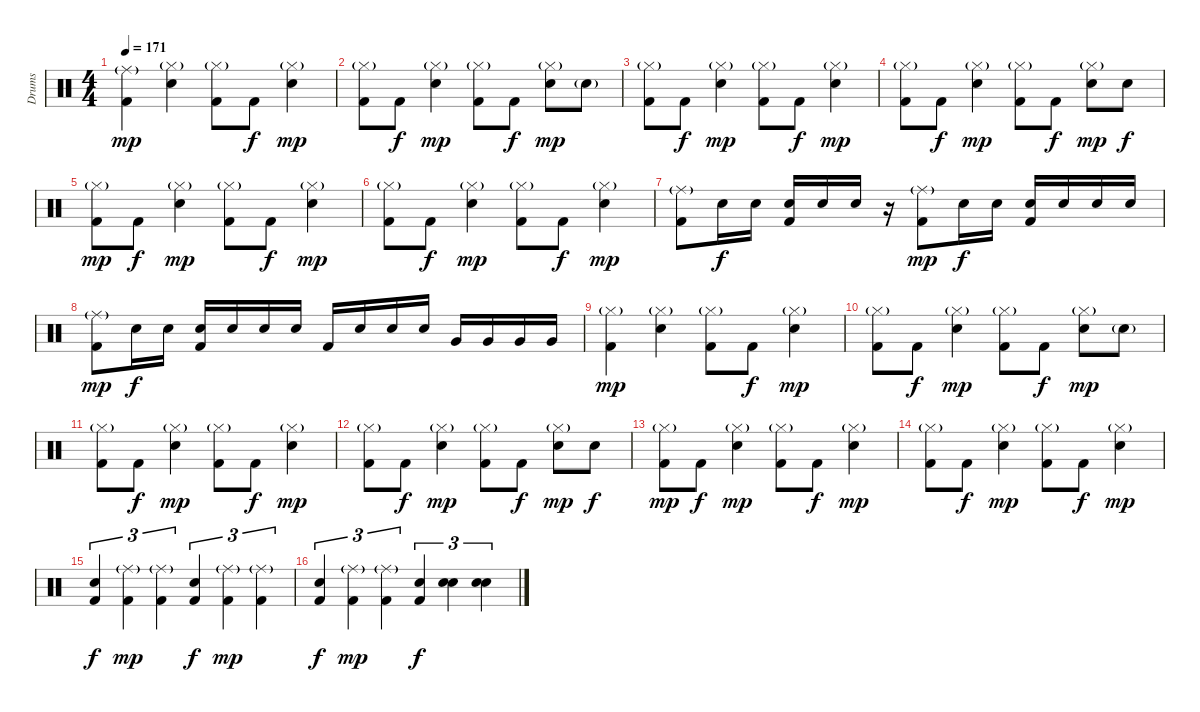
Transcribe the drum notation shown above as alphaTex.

\track ("Drums" "Drums") {instrument percussion}
\staff {score}
\articulation defaults
\ts (4 4)
\tempo 171
\clef neutral
\ks c
("Ride (middle)"{g} "Kick (hit) 2").4{dy mp} ("Hi-Hat (closed)"{g} "Electric Snare (hit)").4 ("Hi-Hat (closed)"{g} "Kick (hit) 2").8 "Kick (hit) 2".8{dy f} ("Hi-Hat (closed)"{g} "Electric Snare (hit)").4{dy mp} |
("Hi-Hat (closed)"{g} "Kick (hit) 2").8 "Kick (hit) 2".8{dy f} ("Hi-Hat (closed)"{g} "Electric Snare (hit)").4{dy mp} ("Hi-Hat (closed)"{g} "Kick (hit) 2").8 "Kick (hit) 2".8{dy f} ("Hi-Hat (closed)"{g} "Electric Snare (hit)").8{dy mp} "Electric Snare (hit)"{g}.8 |
("Hi-Hat (closed)"{g} "Kick (hit) 2").8 "Kick (hit) 2".8{dy f} ("Hi-Hat (closed)"{g} "Electric Snare (hit)").4{dy mp} ("Hi-Hat (closed)"{g} "Kick (hit) 2").8 "Kick (hit) 2".8{dy f} ("Hi-Hat (closed)"{g} "Electric Snare (hit)").4{dy mp} |
("Hi-Hat (closed)"{g} "Kick (hit) 2").8 "Kick (hit) 2".8{dy f} ("Hi-Hat (closed)"{g} "Electric Snare (hit)").4{dy mp} ("Hi-Hat (closed)"{g} "Kick (hit) 2").8 "Kick (hit) 2".8{dy f} ("Hi-Hat (closed)"{g} "Electric Snare (hit)").8{dy mp} "Electric Snare (hit)".8{dy f} |
("Hi-Hat (closed)"{g} "Kick (hit) 2").8{dy mp} "Kick (hit) 2".8{dy f} ("Hi-Hat (closed)"{g} "Electric Snare (hit)").4{dy mp} ("Hi-Hat (closed)"{g} "Kick (hit) 2").8 "Kick (hit) 2".8{dy f} ("Hi-Hat (closed)"{g} "Electric Snare (hit)").4{dy mp} |
("Hi-Hat (closed)"{g} "Kick (hit) 2").8 "Kick (hit) 2".8{dy f} ("Hi-Hat (closed)"{g} "Electric Snare (hit)").4{dy mp} ("Hi-Hat (closed)"{g} "Kick (hit) 2").8 "Kick (hit) 2".8{dy f} ("Hi-Hat (closed)"{g} "Electric Snare (hit)").4{dy mp} |
("Ride (middle)"{g} "Kick (hit) 2").8 "Electric Snare (hit)".16{dy f} "Electric Snare (hit)".16 ("Electric Snare (hit)" "Kick (hit) 2").16 "Electric Snare (hit)".16 "Electric Snare (hit)".16 r.16 ("Ride (middle)"{g} "Kick (hit) 2").8{dy mp} "Electric Snare (hit)".16{dy f} "Electric Snare (hit)".16 ("Electric Snare (hit)" "Kick (hit) 2").16 "Electric Snare (hit)".16 "Electric Snare (hit)".16 "Electric Snare (hit)".16 |
("Ride (middle)"{g} "Kick (hit) 2").8{dy mp} "Electric Snare (hit)".16{dy f} "Electric Snare (hit)".16 ("Electric Snare (hit)" "Kick (hit) 2").16 "Electric Snare (hit)".16 "Electric Snare (hit)".16 "Electric Snare (hit)".16 "Kick (hit) 2".16 "Electric Snare (hit)".16 "Electric Snare (hit)".16 "Electric Snare (hit)".16 "Very Low Tom (hit)".16 "Very Low Tom (hit)".16 "Very Low Tom (hit)".16 "Very Low Tom (hit)".16 |
("Hi-Hat (closed)"{g} "Kick (hit) 2").4{dy mp} ("Hi-Hat (closed)"{g} "Electric Snare (hit)").4 ("Hi-Hat (closed)"{g} "Kick (hit) 2").8 "Kick (hit) 2".8{dy f} ("Hi-Hat (closed)"{g} "Electric Snare (hit)").4{dy mp} |
("Hi-Hat (closed)"{g} "Kick (hit) 2").8 "Kick (hit) 2".8{dy f} ("Hi-Hat (closed)"{g} "Electric Snare (hit)").4{dy mp} ("Hi-Hat (closed)"{g} "Kick (hit) 2").8 "Kick (hit) 2".8{dy f} ("Hi-Hat (closed)"{g} "Electric Snare (hit)").8{dy mp} "Electric Snare (hit)"{g}.8 |
("Hi-Hat (closed)"{g} "Kick (hit) 2").8 "Kick (hit) 2".8{dy f} ("Hi-Hat (closed)"{g} "Electric Snare (hit)").4{dy mp} ("Hi-Hat (closed)"{g} "Kick (hit) 2").8 "Kick (hit) 2".8{dy f} ("Hi-Hat (closed)"{g} "Electric Snare (hit)").4{dy mp} |
("Hi-Hat (closed)"{g} "Kick (hit) 2").8 "Kick (hit) 2".8{dy f} ("Hi-Hat (closed)"{g} "Electric Snare (hit)").4{dy mp} ("Hi-Hat (closed)"{g} "Kick (hit) 2").8 "Kick (hit) 2".8{dy f} ("Hi-Hat (closed)"{g} "Electric Snare (hit)").8{dy mp} "Electric Snare (hit)".8{dy f} |
("Hi-Hat (closed)"{g} "Kick (hit) 2").8{dy mp} "Kick (hit) 2".8{dy f} ("Hi-Hat (closed)"{g} "Electric Snare (hit)").4{dy mp} ("Hi-Hat (closed)"{g} "Kick (hit) 2").8 "Kick (hit) 2".8{dy f} ("Hi-Hat (closed)"{g} "Electric Snare (hit)").4{dy mp} |
("Hi-Hat (closed)"{g} "Kick (hit) 2").8 "Kick (hit) 2".8{dy f} ("Hi-Hat (closed)"{g} "Electric Snare (hit)").4{dy mp} ("Hi-Hat (closed)"{g} "Kick (hit) 2").8 "Kick (hit) 2".8{dy f} ("Hi-Hat (closed)"{g} "Electric Snare (hit)").4{dy mp} |
("Electric Snare (hit)" "Kick (hit) 2").4{tu (3 2) dy f} ("Ride (middle)"{g} "Kick (hit) 2").4{tu (3 2) dy mp} ("Ride (middle)"{g} "Kick (hit) 2").4{tu (3 2)} ("Electric Snare (hit)" "Kick (hit) 2").4{tu (3 2) dy f} ("Ride (middle)"{g} "Kick (hit) 2").4{tu (3 2) dy mp} ("Ride (middle)"{g} "Kick (hit) 2").4{tu (3 2)} |
("Electric Snare (hit)" "Kick (hit) 2").4{tu (3 2) dy f} ("Ride (middle)"{g} "Kick (hit) 2").4{tu (3 2) dy mp} ("Ride (middle)"{g} "Kick (hit) 2").4{tu (3 2)} ("Electric Snare (hit)" "Kick (hit) 2").4{tu (3 2) dy f} ("Electric Snare (hit)" "Electric Snare (hit)").4{tu (3 2)} ("Electric Snare (hit)" "Electric Snare (hit)").4{tu (3 2)}
